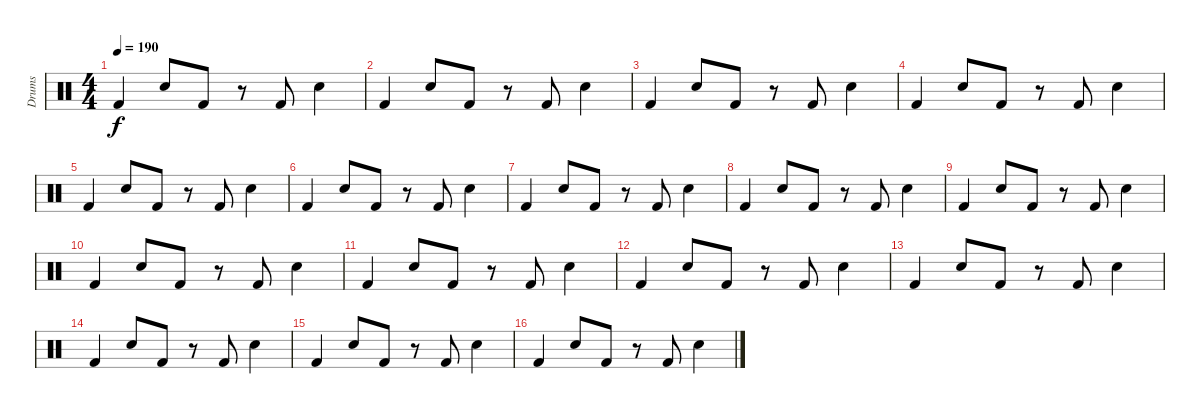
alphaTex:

\track ("Drums" "Drums") {instrument percussion}
\staff {score}
\articulation defaults
\ts (4 4)
\tempo 190
\clef neutral
\ks c "Kick (hit) 2".4{dy f} "Electric Snare (hit)".8 "Kick (hit) 2".8
r.8 "Kick (hit) 2".8 "Electric Snare (hit)".4 |
"Kick (hit) 2".4 "Electric Snare (hit)".8 "Kick (hit) 2".8 r.8 "Kick (hit) 2".8 "Electric Snare (hit)".4 |
"Kick (hit) 2".4 "Electric Snare (hit)".8 "Kick (hit) 2".8 r.8 "Kick (hit) 2".8 "Electric Snare (hit)".4 |
"Kick (hit) 2".4 "Electric Snare (hit)".8 "Kick (hit) 2".8 r.8 "Kick (hit) 2".8 "Electric Snare (hit)".4 |
"Kick (hit) 2".4 "Electric Snare (hit)".8 "Kick (hit) 2".8 r.8 "Kick (hit) 2".8 "Electric Snare (hit)".4 |
"Kick (hit) 2".4 "Electric Snare (hit)".8 "Kick (hit) 2".8 r.8 "Kick (hit) 2".8 "Electric Snare (hit)".4 |
"Kick (hit) 2".4 "Electric Snare (hit)".8 "Kick (hit) 2".8 r.8 "Kick (hit) 2".8 "Electric Snare (hit)".4 |
"Kick (hit) 2".4 "Electric Snare (hit)".8 "Kick (hit) 2".8 r.8 "Kick (hit) 2".8 "Electric Snare (hit)".4 |
"Kick (hit) 2".4 "Electric Snare (hit)".8 "Kick (hit) 2".8 r.8 "Kick (hit) 2".8 "Electric Snare (hit)".4 |
"Kick (hit) 2".4 "Electric Snare (hit)".8 "Kick (hit) 2".8 r.8 "Kick (hit) 2".8 "Electric Snare (hit)".4 |
"Kick (hit) 2".4 "Electric Snare (hit)".8 "Kick (hit) 2".8 r.8 "Kick (hit) 2".8 "Electric Snare (hit)".4 |
"Kick (hit) 2".4 "Electric Snare (hit)".8 "Kick (hit) 2".8 r.8 "Kick (hit) 2".8 "Electric Snare (hit)".4 |
"Kick (hit) 2".4 "Electric Snare (hit)".8 "Kick (hit) 2".8 r.8 "Kick (hit) 2".8 "Electric Snare (hit)".4 |
"Kick (hit) 2".4 "Electric Snare (hit)".8 "Kick (hit) 2".8 r.8 "Kick (hit) 2".8 "Electric Snare (hit)".4 |
"Kick (hit) 2".4 "Electric Snare (hit)".8 "Kick (hit) 2".8 r.8 "Kick (hit) 2".8 "Electric Snare (hit)".4 |
"Kick (hit) 2".4 "Electric Snare (hit)".8 "Kick (hit) 2".8 r.8 "Kick (hit) 2".8 "Electric Snare (hit)".4
